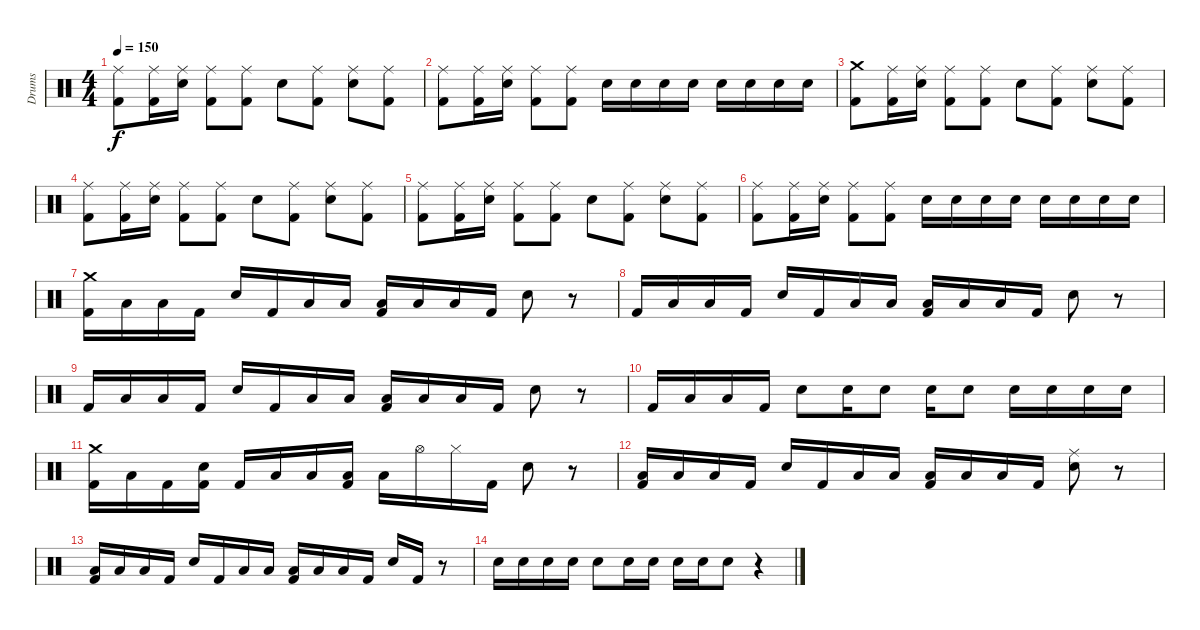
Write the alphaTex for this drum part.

\track ("Drums" "Drums") {instrument percussion}
\staff {score}
\articulation defaults
\ts (4 4)
\tempo 150
\clef neutral
\ks c
("Ride (middle)" "Kick (hit) 2").8{dy f} ("Ride (middle)" "Kick (hit) 2").16 ("Ride (middle)" "Electric Snare (hit)").16 ("Ride (middle)" "Kick (hit) 2").8 ("Ride (middle)" "Kick (hit) 2").8 "Electric Snare (hit)".8 ("Ride (middle)" "Kick (hit) 2").8 ("Ride (middle)" "Electric Snare (hit)").8 ("Ride (middle)" "Kick (hit) 2").8 |
("Ride (middle)" "Kick (hit) 2").8 ("Ride (middle)" "Kick (hit) 2").16 ("Ride (middle)" "Electric Snare (hit)").16 ("Ride (middle)" "Kick (hit) 2").8 ("Ride (middle)" "Kick (hit) 2").8 "Electric Snare (hit)".16 "Electric Snare (hit)".16 "Electric Snare (hit)".16 "Electric Snare (hit)".16 "Electric Snare (hit)".16 "Electric Snare (hit)".16 "Electric Snare (hit)".16 "Electric Snare (hit)".16 |
("Crash medium (hit)" "Kick (hit) 2").8 ("Ride (middle)" "Kick (hit) 2").16 ("Ride (middle)" "Electric Snare (hit)").16 ("Ride (middle)" "Kick (hit) 2").8 ("Ride (middle)" "Kick (hit) 2").8 "Electric Snare (hit)".8 ("Ride (middle)" "Kick (hit) 2").8 ("Ride (middle)" "Electric Snare (hit)").8 ("Ride (middle)" "Kick (hit) 2").8 |
("Ride (middle)" "Kick (hit) 2").8 ("Ride (middle)" "Kick (hit) 2").16 ("Ride (middle)" "Electric Snare (hit)").16 ("Ride (middle)" "Kick (hit) 2").8 ("Ride (middle)" "Kick (hit) 2").8 "Electric Snare (hit)".8 ("Ride (middle)" "Kick (hit) 2").8 ("Ride (middle)" "Electric Snare (hit)").8 ("Ride (middle)" "Kick (hit) 2").8 |
("Ride (middle)" "Kick (hit) 2").8 ("Ride (middle)" "Kick (hit) 2").16 ("Ride (middle)" "Electric Snare (hit)").16 ("Ride (middle)" "Kick (hit) 2").8 ("Ride (middle)" "Kick (hit) 2").8 "Electric Snare (hit)".8 ("Ride (middle)" "Kick (hit) 2").8 ("Ride (middle)" "Electric Snare (hit)").8 ("Ride (middle)" "Kick (hit) 2").8 |
("Ride (middle)" "Kick (hit) 2").8 ("Ride (middle)" "Kick (hit) 2").16 ("Ride (middle)" "Electric Snare (hit)").16 ("Ride (middle)" "Kick (hit) 2").8 ("Ride (middle)" "Kick (hit) 2").8 "Electric Snare (hit)".16 "Electric Snare (hit)".16 "Electric Snare (hit)".16 "Electric Snare (hit)".16 "Electric Snare (hit)".16 "Electric Snare (hit)".16 "Electric Snare (hit)".16 "Electric Snare (hit)".16 |
("Crash medium (hit)" "Kick (hit) 2").16 "Low Floor Tom (hit)".16 "Low Floor Tom (hit)".16 "Kick (hit) 2".16 "Electric Snare (hit)".16 "Kick (hit) 2".16 "Low Floor Tom (hit)".16 "Low Floor Tom (hit)".16 ("Low Floor Tom (hit)" "Kick (hit) 2").16 "Low Floor Tom (hit)".16 "Low Floor Tom (hit)".16 "Kick (hit) 2".16 "Electric Snare (hit)".8 r.8 |
"Kick (hit) 2".16 "Low Floor Tom (hit)".16 "Low Floor Tom (hit)".16 "Kick (hit) 2".16 "Electric Snare (hit)".16 "Kick (hit) 2".16 "Low Floor Tom (hit)".16 "Low Floor Tom (hit)".16 ("Low Floor Tom (hit)" "Kick (hit) 2").16 "Low Floor Tom (hit)".16 "Low Floor Tom (hit)".16 "Kick (hit) 2".16 "Electric Snare (hit)".8 r.8 |
"Kick (hit) 2".16 "Low Floor Tom (hit)".16 "Low Floor Tom (hit)".16 "Kick (hit) 2".16 "Electric Snare (hit)".16 "Kick (hit) 2".16 "Low Floor Tom (hit)".16 "Low Floor Tom (hit)".16 ("Low Floor Tom (hit)" "Kick (hit) 2").16 "Low Floor Tom (hit)".16 "Low Floor Tom (hit)".16 "Kick (hit) 2".16 "Electric Snare (hit)".8 r.8 |
"Kick (hit) 2".16 "Low Floor Tom (hit)".16 "Low Floor Tom (hit)".16 "Kick (hit) 2".16 "Electric Snare (hit)".8 "Electric Snare (hit)".16 "Electric Snare (hit)".8 "Electric Snare (hit)".16 "Electric Snare (hit)".8 "Electric Snare (hit)".16 "Electric Snare (hit)".16 "Electric Snare (hit)".16 "Electric Snare (hit)".16 |
("Crash medium (hit)" "Kick (hit) 2").16 "Low Floor Tom (hit)".16 "Kick (hit) 2".16 ("Electric Snare (hit)" "Kick (hit) 2").16 "Kick (hit) 2".16 "Low Floor Tom (hit)".16 "Low Floor Tom (hit)".16 ("Low Floor Tom (hit)" "Kick (hit) 2").16 "Low Floor Tom (hit)".16 "Hi-Hat (open)".16 "Hi-Hat (closed)".16 "Kick (hit) 2".16 "Electric Snare (hit)".8 r.8 |
("Low Floor Tom (hit)" "Kick (hit) 2").16 "Low Floor Tom (hit)".16 "Low Floor Tom (hit)".16 "Kick (hit) 2".16 "Electric Snare (hit)".16 "Kick (hit) 2".16 "Low Floor Tom (hit)".16 "Low Floor Tom (hit)".16 ("Low Floor Tom (hit)" "Kick (hit) 2").16 "Low Floor Tom (hit)".16 "Low Floor Tom (hit)".16 "Kick (hit) 2".16 ("Ride (middle)" "Electric Snare (hit)").8 r.8 |
("Low Floor Tom (hit)" "Kick (hit) 2").16 "Low Floor Tom (hit)".16 "Low Floor Tom (hit)".16 "Kick (hit) 2".16 "Electric Snare (hit)".16 "Kick (hit) 2".16 "Low Floor Tom (hit)".16 "Low Floor Tom (hit)".16 ("Low Floor Tom (hit)" "Kick (hit) 2").16 "Low Floor Tom (hit)".16 "Low Floor Tom (hit)".16 "Kick (hit) 2".16 "Electric Snare (hit)".16 "Kick (hit) 2".16 r.8 |
"Electric Snare (hit)".16 "Electric Snare (hit)".16 "Electric Snare (hit)".16 "Electric Snare (hit)".16 "Electric Snare (hit)".8 "Electric Snare (hit)".16 "Electric Snare (hit)".16 "Electric Snare (hit)".16 "Electric Snare (hit)".16 "Electric Snare (hit)".8 r.4
